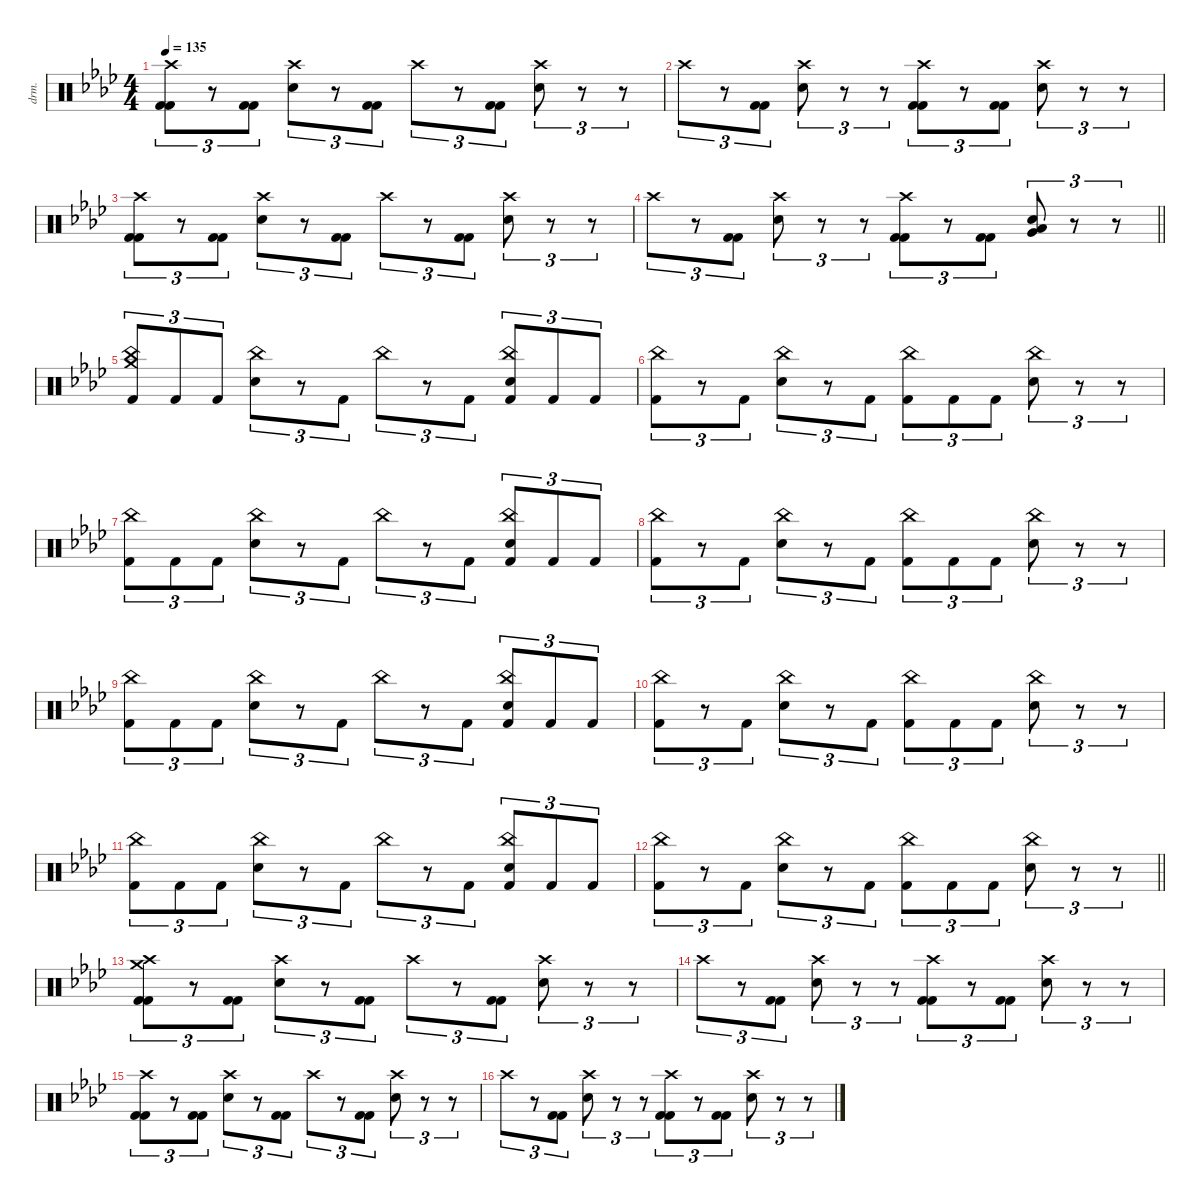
\defaultSystemsLayout 4
\hideDynamics
\bracketExtendMode nobrackets
\otherSystemsTrackNameOrientation horizontal
\track ("Drums" "drm.") {defaultSystemsLayout 4 instrument percussion}
\staff {score}
\articulation defaults
\ts (4 4)
\tempo 135
\clef neutral
\ks ab
("Crash high (hit)"{acc forcenatural} "Kick (hit) 2"{acc forcenatural} "Kick (hit) 2"{acc forcenatural}).8{tu (3 2) dy f beam Down} r.8{tu (3 2) beam Down} ("Kick (hit) 2"{acc forcenatural} "Kick (hit) 2"{acc forcenatural}).8{tu (3 2) beam Down} ("Crash high (hit)"{acc forcenatural} "Snare (hit) 2"{acc forcenatural}).8{tu (3 2) beam Down} r.8{tu (3 2) beam Down} ("Kick (hit) 2"{acc forcenatural} "Kick (hit) 2"{acc forcenatural}).8{tu (3 2) beam Down} "Crash high (hit)"{acc forcenatural}.8{tu (3 2) beam Down} r.8{tu (3 2) beam Down} ("Kick (hit) 2"{acc forcenatural} "Kick (hit) 2"{acc forcenatural}).8{tu (3 2) beam Down} ("Crash high (hit)"{acc forcenatural} "Snare (hit) 2"{acc forcenatural}).8{tu (3 2) beam Down} r.8{tu (3 2) beam Down} r.8{tu (3 2) beam Down} |
"Crash high (hit)"{acc forcenatural}.8{tu (3 2) beam Down} r.8{tu (3 2) beam Down} ("Kick (hit) 2"{acc forcenatural} "Kick (hit) 2"{acc forcenatural}).8{tu (3 2) beam Down} ("Crash high (hit)"{acc forcenatural} "Snare (hit) 2"{acc forcenatural}).8{tu (3 2) beam Down} r.8{tu (3 2) beam Down} r.8{tu (3 2) beam Down} ("Crash high (hit)"{acc forcenatural} "Kick (hit) 2"{acc forcenatural} "Kick (hit) 2"{acc forcenatural}).8{tu (3 2) beam Down} r.8{tu (3 2) beam Down} ("Kick (hit) 2"{acc forcenatural} "Kick (hit) 2"{acc forcenatural}).8{tu (3 2) beam Down} ("Crash high (hit)"{acc forcenatural} "Snare (hit) 2"{acc forcenatural}).8{tu (3 2) beam Down} r.8{tu (3 2) beam Down} r.8{tu (3 2) beam Down} |
("Crash high (hit)"{acc forcenatural} "Kick (hit) 2"{acc forcenatural} "Kick (hit) 2"{acc forcenatural}).8{tu (3 2) beam Down} r.8{tu (3 2) beam Down} ("Kick (hit) 2"{acc forcenatural} "Kick (hit) 2"{acc forcenatural}).8{tu (3 2) beam Down} ("Crash high (hit)"{acc forcenatural} "Snare (hit) 2"{acc forcenatural}).8{tu (3 2) beam Down} r.8{tu (3 2) beam Down} ("Kick (hit) 2"{acc forcenatural} "Kick (hit) 2"{acc forcenatural}).8{tu (3 2) beam Down} "Crash high (hit)"{acc forcenatural}.8{tu (3 2) beam Down} r.8{tu (3 2) beam Down} ("Kick (hit) 2"{acc forcenatural} "Kick (hit) 2"{acc forcenatural}).8{tu (3 2) beam Down} ("Crash high (hit)"{acc forcenatural} "Snare (hit) 2"{acc forcenatural}).8{tu (3 2) beam Down} r.8{tu (3 2) beam Down} r.8{tu (3 2) beam Down} |
\barLineRight lightlight "Crash high (hit)"{acc forcenatural}.8{tu (3 2) beam Down}
r.8{tu (3 2) beam Down} ("Kick (hit) 2"{acc forcenatural} "Kick (hit) 2"{acc forcenatural}).8{tu (3 2) beam Down} ("Crash high (hit)"{acc forcenatural} "Snare (hit) 2"{acc forcenatural}).8{tu (3 2) beam Down} r.8{tu (3 2) beam Down} r.8{tu (3 2) beam Down} ("Crash high (hit)"{acc forcenatural} "Kick (hit) 2"{acc forcenatural} "Kick (hit) 2"{acc forcenatural}).8{tu (3 2) beam Down} r.8{tu (3 2) beam Down} ("Kick (hit) 2"{acc forcenatural} "Kick (hit) 2"{acc forcenatural}).8{tu (3 2) beam Down} ("Snare (hit) 2"{acc forcenatural} "Very Low Tom (hit)"{acc forcenatural} "Low Floor Tom (hit)"{acc forcenatural}).8{tu (3 2) beam Up} r.8{tu (3 2) beam Up} r.8{tu (3 2) beam Up} |
("Crash medium (hit)"{acc forcenatural} "China (hit)"{acc forcenatural} "Kick (hit) 2"{acc forcenatural}).8{tu (3 2) beam Up} "Kick (hit) 2"{acc forcenatural}.8{tu (3 2) beam Up} "Kick (hit) 2"{acc forcenatural}.8{tu (3 2) beam Up} ("China (hit)"{acc forcenatural} "Snare (hit) 2"{acc forcenatural}).8{tu (3 2) beam Down} r.8{tu (3 2) beam Down} "Kick (hit) 2"{acc forcenatural}.8{tu (3 2) beam Down} "China (hit)"{acc forcenatural}.8{tu (3 2) beam Down} r.8{tu (3 2) beam Down} "Kick (hit) 2"{acc forcenatural}.8{tu (3 2) beam Down} ("China (hit)"{acc forcenatural} "Snare (hit) 2"{acc forcenatural} "Kick (hit) 2"{acc forcenatural}).8{tu (3 2) beam Up} "Kick (hit) 2"{acc forcenatural}.8{tu (3 2) beam Up} "Kick (hit) 2"{acc forcenatural}.8{tu (3 2) beam Up} |
("China (hit)"{acc forcenatural} "Kick (hit) 2"{acc forcenatural}).8{tu (3 2) beam Down} r.8{tu (3 2) beam Down} "Kick (hit) 2"{acc forcenatural}.8{tu (3 2) beam Down} ("China (hit)"{acc forcenatural} "Snare (hit) 2"{acc forcenatural}).8{tu (3 2) beam Down} r.8{tu (3 2) beam Down} "Kick (hit) 2"{acc forcenatural}.8{tu (3 2) beam Down} ("China (hit)"{acc forcenatural} "Kick (hit) 2"{acc forcenatural}).8{tu (3 2) beam Down} "Kick (hit) 2"{acc forcenatural}.8{tu (3 2) beam Down} "Kick (hit) 2"{acc forcenatural}.8{tu (3 2) beam Down} ("China (hit)"{acc forcenatural} "Snare (hit) 2"{acc forcenatural}).8{tu (3 2) beam Down} r.8{tu (3 2) beam Down} r.8{tu (3 2) beam Down} |
("China (hit)"{acc forcenatural} "Kick (hit) 2"{acc forcenatural}).8{tu (3 2) beam Down} "Kick (hit) 2"{acc forcenatural}.8{tu (3 2) beam Down} "Kick (hit) 2"{acc forcenatural}.8{tu (3 2) beam Down} ("China (hit)"{acc forcenatural} "Snare (hit) 2"{acc forcenatural}).8{tu (3 2) beam Down} r.8{tu (3 2) beam Down} "Kick (hit) 2"{acc forcenatural}.8{tu (3 2) beam Down} "China (hit)"{acc forcenatural}.8{tu (3 2) beam Down} r.8{tu (3 2) beam Down} "Kick (hit) 2"{acc forcenatural}.8{tu (3 2) beam Down} ("China (hit)"{acc forcenatural} "Snare (hit) 2"{acc forcenatural} "Kick (hit) 2"{acc forcenatural}).8{tu (3 2) beam Up} "Kick (hit) 2"{acc forcenatural}.8{tu (3 2) beam Up} "Kick (hit) 2"{acc forcenatural}.8{tu (3 2) beam Up} |
("China (hit)"{acc forcenatural} "Kick (hit) 2"{acc forcenatural}).8{tu (3 2) beam Down} r.8{tu (3 2) beam Down} "Kick (hit) 2"{acc forcenatural}.8{tu (3 2) beam Down} ("China (hit)"{acc forcenatural} "Snare (hit) 2"{acc forcenatural}).8{tu (3 2) beam Down} r.8{tu (3 2) beam Down} "Kick (hit) 2"{acc forcenatural}.8{tu (3 2) beam Down} ("China (hit)"{acc forcenatural} "Kick (hit) 2"{acc forcenatural}).8{tu (3 2) beam Down} "Kick (hit) 2"{acc forcenatural}.8{tu (3 2) beam Down} "Kick (hit) 2"{acc forcenatural}.8{tu (3 2) beam Down} ("China (hit)"{acc forcenatural} "Snare (hit) 2"{acc forcenatural}).8{tu (3 2) beam Down} r.8{tu (3 2) beam Down} r.8{tu (3 2) beam Down} |
("China (hit)"{acc forcenatural} "Kick (hit) 2"{acc forcenatural}).8{tu (3 2) beam Down} "Kick (hit) 2"{acc forcenatural}.8{tu (3 2) beam Down} "Kick (hit) 2"{acc forcenatural}.8{tu (3 2) beam Down} ("China (hit)"{acc forcenatural} "Snare (hit) 2"{acc forcenatural}).8{tu (3 2) beam Down} r.8{tu (3 2) beam Down} "Kick (hit) 2"{acc forcenatural}.8{tu (3 2) beam Down} "China (hit)"{acc forcenatural}.8{tu (3 2) beam Down} r.8{tu (3 2) beam Down} "Kick (hit) 2"{acc forcenatural}.8{tu (3 2) beam Down} ("China (hit)"{acc forcenatural} "Snare (hit) 2"{acc forcenatural} "Kick (hit) 2"{acc forcenatural}).8{tu (3 2) beam Up} "Kick (hit) 2"{acc forcenatural}.8{tu (3 2) beam Up} "Kick (hit) 2"{acc forcenatural}.8{tu (3 2) beam Up} |
("China (hit)"{acc forcenatural} "Kick (hit) 2"{acc forcenatural}).8{tu (3 2) beam Down} r.8{tu (3 2) beam Down} "Kick (hit) 2"{acc forcenatural}.8{tu (3 2) beam Down} ("China (hit)"{acc forcenatural} "Snare (hit) 2"{acc forcenatural}).8{tu (3 2) beam Down} r.8{tu (3 2) beam Down} "Kick (hit) 2"{acc forcenatural}.8{tu (3 2) beam Down} ("China (hit)"{acc forcenatural} "Kick (hit) 2"{acc forcenatural}).8{tu (3 2) beam Down} "Kick (hit) 2"{acc forcenatural}.8{tu (3 2) beam Down} "Kick (hit) 2"{acc forcenatural}.8{tu (3 2) beam Down} ("China (hit)"{acc forcenatural} "Snare (hit) 2"{acc forcenatural}).8{tu (3 2) beam Down} r.8{tu (3 2) beam Down} r.8{tu (3 2) beam Down} |
("China (hit)"{acc forcenatural} "Kick (hit) 2"{acc forcenatural}).8{tu (3 2) beam Down} "Kick (hit) 2"{acc forcenatural}.8{tu (3 2) beam Down} "Kick (hit) 2"{acc forcenatural}.8{tu (3 2) beam Down} ("China (hit)"{acc forcenatural} "Snare (hit) 2"{acc forcenatural}).8{tu (3 2) beam Down} r.8{tu (3 2) beam Down} "Kick (hit) 2"{acc forcenatural}.8{tu (3 2) beam Down} "China (hit)"{acc forcenatural}.8{tu (3 2) beam Down} r.8{tu (3 2) beam Down} "Kick (hit) 2"{acc forcenatural}.8{tu (3 2) beam Down} ("China (hit)"{acc forcenatural} "Snare (hit) 2"{acc forcenatural} "Kick (hit) 2"{acc forcenatural}).8{tu (3 2) beam Up} "Kick (hit) 2"{acc forcenatural}.8{tu (3 2) beam Up} "Kick (hit) 2"{acc forcenatural}.8{tu (3 2) beam Up} |
\barLineRight lightlight
("China (hit)"{acc forcenatural} "Kick (hit) 2"{acc forcenatural}).8{tu (3 2) beam Down} r.8{tu (3 2) beam Down} "Kick (hit) 2"{acc forcenatural}.8{tu (3 2) beam Down} ("China (hit)"{acc forcenatural} "Snare (hit) 2"{acc forcenatural}).8{tu (3 2) beam Down} r.8{tu (3 2) beam Down} "Kick (hit) 2"{acc forcenatural}.8{tu (3 2) beam Down} ("China (hit)"{acc forcenatural} "Kick (hit) 2"{acc forcenatural}).8{tu (3 2) beam Down} "Kick (hit) 2"{acc forcenatural}.8{tu (3 2) beam Down} "Kick (hit) 2"{acc forcenatural}.8{tu (3 2) beam Down} ("China (hit)"{acc forcenatural} "Snare (hit) 2"{acc forcenatural}).8{tu (3 2) beam Down} r.8{tu (3 2) beam Down} r.8{tu (3 2) beam Down} |
("Crash high (hit)"{acc forcenatural} "Crash medium (hit)"{acc forcenatural} "Kick (hit) 2"{acc forcenatural} "Kick (hit) 2"{acc forcenatural}).8{tu (3 2) beam Down} r.8{tu (3 2) beam Down} ("Kick (hit) 2"{acc forcenatural} "Kick (hit) 2"{acc forcenatural}).8{tu (3 2) beam Down} ("Crash high (hit)"{acc forcenatural} "Snare (hit) 2"{acc forcenatural}).8{tu (3 2) beam Down} r.8{tu (3 2) beam Down} ("Kick (hit) 2"{acc forcenatural} "Kick (hit) 2"{acc forcenatural}).8{tu (3 2) beam Down} "Crash high (hit)"{acc forcenatural}.8{tu (3 2) beam Down} r.8{tu (3 2) beam Down} ("Kick (hit) 2"{acc forcenatural} "Kick (hit) 2"{acc forcenatural}).8{tu (3 2) beam Down} ("Crash high (hit)"{acc forcenatural} "Snare (hit) 2"{acc forcenatural}).8{tu (3 2) beam Down} r.8{tu (3 2) beam Down} r.8{tu (3 2) beam Down} |
"Crash high (hit)"{acc forcenatural}.8{tu (3 2) beam Down} r.8{tu (3 2) beam Down} ("Kick (hit) 2"{acc forcenatural} "Kick (hit) 2"{acc forcenatural}).8{tu (3 2) beam Down} ("Crash high (hit)"{acc forcenatural} "Snare (hit) 2"{acc forcenatural}).8{tu (3 2) beam Down} r.8{tu (3 2) beam Down} r.8{tu (3 2) beam Down} ("Crash high (hit)"{acc forcenatural} "Kick (hit) 2"{acc forcenatural} "Kick (hit) 2"{acc forcenatural}).8{tu (3 2) beam Down} r.8{tu (3 2) beam Down} ("Kick (hit) 2"{acc forcenatural} "Kick (hit) 2"{acc forcenatural}).8{tu (3 2) beam Down} ("Crash high (hit)"{acc forcenatural} "Snare (hit) 2"{acc forcenatural}).8{tu (3 2) beam Down} r.8{tu (3 2) beam Down} r.8{tu (3 2) beam Down} |
("Crash high (hit)"{acc forcenatural} "Kick (hit) 2"{acc forcenatural} "Kick (hit) 2"{acc forcenatural}).8{tu (3 2) beam Down} r.8{tu (3 2) beam Down} ("Kick (hit) 2"{acc forcenatural} "Kick (hit) 2"{acc forcenatural}).8{tu (3 2) beam Down} ("Crash high (hit)"{acc forcenatural} "Snare (hit) 2"{acc forcenatural}).8{tu (3 2) beam Down} r.8{tu (3 2) beam Down} ("Kick (hit) 2"{acc forcenatural} "Kick (hit) 2"{acc forcenatural}).8{tu (3 2) beam Down} "Crash high (hit)"{acc forcenatural}.8{tu (3 2) beam Down} r.8{tu (3 2) beam Down} ("Kick (hit) 2"{acc forcenatural} "Kick (hit) 2"{acc forcenatural}).8{tu (3 2) beam Down} ("Crash high (hit)"{acc forcenatural} "Snare (hit) 2"{acc forcenatural}).8{tu (3 2) beam Down} r.8{tu (3 2) beam Down} r.8{tu (3 2) beam Down} |
"Crash high (hit)"{acc forcenatural}.8{tu (3 2) beam Down} r.8{tu (3 2) beam Down} ("Kick (hit) 2"{acc forcenatural} "Kick (hit) 2"{acc forcenatural}).8{tu (3 2) beam Down} ("Crash high (hit)"{acc forcenatural} "Snare (hit) 2"{acc forcenatural}).8{tu (3 2) beam Down} r.8{tu (3 2) beam Down} r.8{tu (3 2) beam Down} ("Crash high (hit)"{acc forcenatural} "Kick (hit) 2"{acc forcenatural} "Kick (hit) 2"{acc forcenatural}).8{tu (3 2) beam Down} r.8{tu (3 2) beam Down} ("Kick (hit) 2"{acc forcenatural} "Kick (hit) 2"{acc forcenatural}).8{tu (3 2) beam Down} ("Crash high (hit)"{acc forcenatural} "Snare (hit) 2"{acc forcenatural}).8{tu (3 2) beam Down} r.8{tu (3 2) beam Down} r.8{tu (3 2) beam Down}
